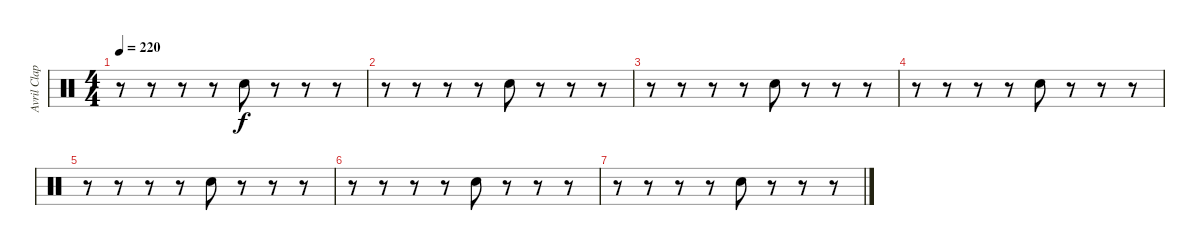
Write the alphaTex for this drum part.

\track ("Avril Claps" "Avril Clap") {instrument percussion}
\staff {score}
\articulation defaults
\ts (4 4)
\tempo 220
\clef neutral
\ks c
r.8{dy f} r.8 r.8 r.8 "Hand Clap (hit)".8 r.8 r.8 r.8 |
r.8 r.8 r.8 r.8 "Hand Clap (hit)".8 r.8 r.8 r.8 |
r.8 r.8 r.8 r.8 "Hand Clap (hit)".8 r.8 r.8 r.8 |
r.8 r.8 r.8 r.8 "Hand Clap (hit)".8 r.8 r.8 r.8 |
r.8 r.8 r.8 r.8 "Hand Clap (hit)".8 r.8 r.8 r.8 |
r.8 r.8 r.8 r.8 "Hand Clap (hit)".8 r.8 r.8 r.8 |
r.8 r.8 r.8 r.8 "Hand Clap (hit)".8 r.8 r.8 r.8
